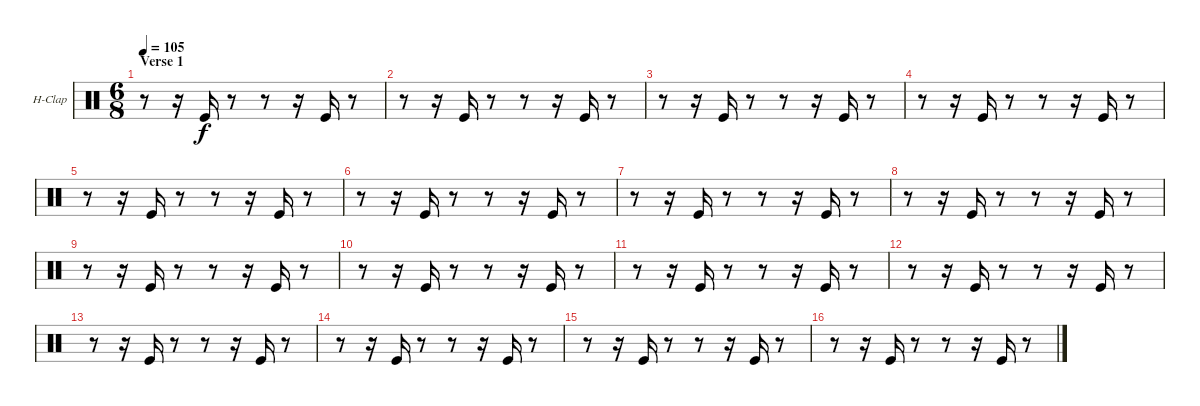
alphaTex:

\defaultSystemsLayout 4
\bracketExtendMode nobrackets
\firstSystemTrackNameOrientation horizontal
\otherSystemsTrackNameOrientation horizontal
\track ("Hand Clap" "H-Clap") {instrument percussion}
\staff {score}
\articulation defaults
\ts (6 8)
\section ("" "Verse 1")
\tempo 105
\clef neutral
\ks c
r.8{dy f} r.16 "Kick (hit)".16 r.8 r.8 r.16 "Kick (hit)".16 r.8 |
r.8 r.16 "Kick (hit)".16 r.8 r.8 r.16 "Kick (hit)".16 r.8 |
r.8 r.16 "Kick (hit)".16 r.8 r.8 r.16 "Kick (hit)".16 r.8 |
r.8 r.16 "Kick (hit)".16 r.8 r.8 r.16 "Kick (hit)".16 r.8 |
r.8 r.16 "Kick (hit)".16 r.8 r.8 r.16 "Kick (hit)".16 r.8 |
r.8 r.16 "Kick (hit)".16 r.8 r.8 r.16 "Kick (hit)".16 r.8 |
r.8 r.16 "Kick (hit)".16 r.8 r.8 r.16 "Kick (hit)".16 r.8 |
r.8 r.16 "Kick (hit)".16 r.8 r.8 r.16 "Kick (hit)".16 r.8 |
r.8 r.16 "Kick (hit)".16 r.8 r.8 r.16 "Kick (hit)".16 r.8 |
r.8 r.16 "Kick (hit)".16 r.8 r.8 r.16 "Kick (hit)".16 r.8 |
r.8 r.16 "Kick (hit)".16 r.8 r.8 r.16 "Kick (hit)".16 r.8 |
r.8 r.16 "Kick (hit)".16 r.8 r.8 r.16 "Kick (hit)".16 r.8 |
r.8 r.16 "Kick (hit)".16 r.8 r.8 r.16 "Kick (hit)".16 r.8 |
r.8 r.16 "Kick (hit)".16 r.8 r.8 r.16 "Kick (hit)".16 r.8 |
r.8 r.16 "Kick (hit)".16 r.8 r.8 r.16 "Kick (hit)".16 r.8 |
r.8 r.16 "Kick (hit)".16 r.8 r.8 r.16 "Kick (hit)".16 r.8
